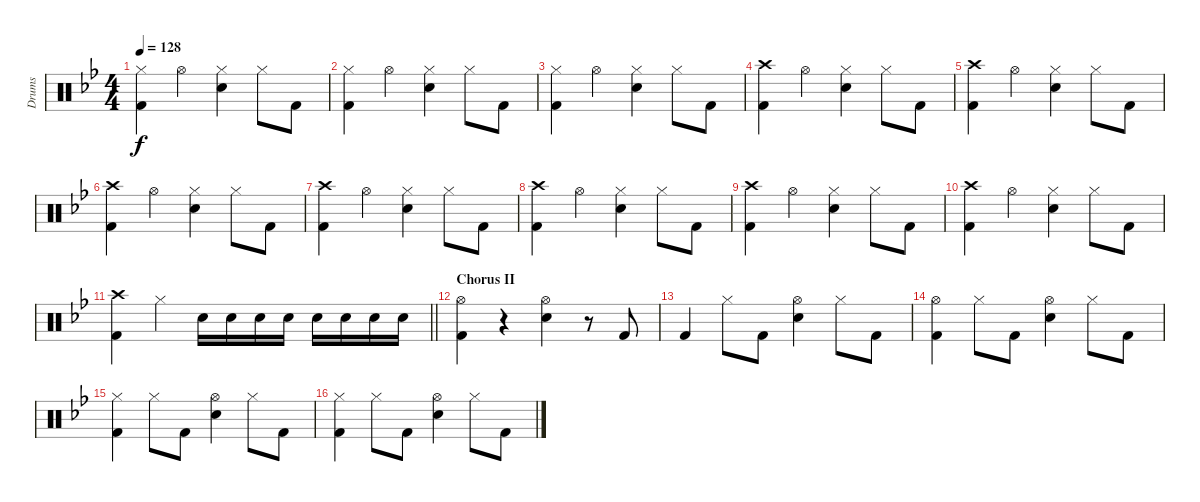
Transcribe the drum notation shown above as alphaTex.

\track ("Drums" "Drums") {instrument percussion}
\staff {score}
\articulation defaults
\ts (4 4)
\tempo 128
\clef neutral
\ks bb
("Hi-Hat (closed)" "Kick (hit) 2").4{dy f} "Hi-Hat (open)".4 ("Hi-Hat (closed)" "Electric Snare (hit)").4 "Hi-Hat (closed)".8 "Kick (hit) 2".8 |
("Hi-Hat (closed)" "Kick (hit) 2").4 "Hi-Hat (open)".4 ("Hi-Hat (closed)" "Electric Snare (hit)").4 "Hi-Hat (closed)".8 "Kick (hit) 2".8 |
("Hi-Hat (closed)" "Kick (hit) 2").4 "Hi-Hat (open)".4 ("Hi-Hat (closed)" "Electric Snare (hit)").4 "Hi-Hat (closed)".8 "Kick (hit) 2".8 |
("Crash high (hit)" "Kick (hit) 2").4 "Hi-Hat (open)".4 ("Hi-Hat (closed)" "Electric Snare (hit)").4 "Hi-Hat (closed)".8 "Kick (hit) 2".8 |
("Crash high (hit)" "Kick (hit) 2").4 "Hi-Hat (open)".4 ("Hi-Hat (closed)" "Electric Snare (hit)").4 "Hi-Hat (closed)".8 "Kick (hit) 2".8 |
("Crash high (hit)" "Kick (hit) 2").4 "Hi-Hat (open)".4 ("Hi-Hat (closed)" "Electric Snare (hit)").4 "Hi-Hat (closed)".8 "Kick (hit) 2".8 |
("Crash high (hit)" "Kick (hit) 2").4 "Hi-Hat (open)".4 ("Hi-Hat (closed)" "Electric Snare (hit)").4 "Hi-Hat (closed)".8 "Kick (hit) 2".8 |
("Crash high (hit)" "Kick (hit) 2").4 "Hi-Hat (open)".4 ("Hi-Hat (closed)" "Electric Snare (hit)").4 "Hi-Hat (closed)".8 "Kick (hit) 2".8 |
("Crash high (hit)" "Kick (hit) 2").4 "Hi-Hat (open)".4 ("Hi-Hat (closed)" "Electric Snare (hit)").4 "Hi-Hat (closed)".8 "Kick (hit) 2".8 |
("Crash high (hit)" "Kick (hit) 2").4 "Hi-Hat (open)".4 ("Hi-Hat (closed)" "Electric Snare (hit)").4 "Hi-Hat (closed)".8 "Kick (hit) 2".8 |
\barLineRight lightlight
("Crash high (hit)" "Kick (hit) 2").4 "Hi-Hat (closed)".4 "Electric Snare (hit)".16 "Electric Snare (hit)".16 "Electric Snare (hit)".16 "Electric Snare (hit)".16 "Electric Snare (hit)".16 "Electric Snare (hit)".16 "Electric Snare (hit)".16 "Electric Snare (hit)".16 |
\section ("" "Chorus II")
("Hi-Hat (open)" "Kick (hit) 2").4 r.4 ("Hi-Hat (open)" "Electric Snare (hit)").4 r.8 "Kick (hit) 2".8 |
"Kick (hit) 2".4 "Hi-Hat (closed)".8 "Kick (hit) 2".8 ("Hi-Hat (open)" "Electric Snare (hit)").4 "Hi-Hat (closed)".8 "Kick (hit) 2".8 |
("Hi-Hat (open)" "Kick (hit) 2").4 "Hi-Hat (closed)".8 "Kick (hit) 2".8 ("Hi-Hat (open)" "Electric Snare (hit)").4 "Hi-Hat (closed)".8 "Kick (hit) 2".8 |
("Hi-Hat (closed)" "Kick (hit) 2").4 "Hi-Hat (closed)".8 "Kick (hit) 2".8 ("Hi-Hat (open)" "Electric Snare (hit)").4 "Hi-Hat (closed)".8 "Kick (hit) 2".8 |
("Hi-Hat (closed)" "Kick (hit) 2").4 "Hi-Hat (closed)".8 "Kick (hit) 2".8 ("Hi-Hat (open)" "Electric Snare (hit)").4 "Hi-Hat (closed)".8 "Kick (hit) 2".8
